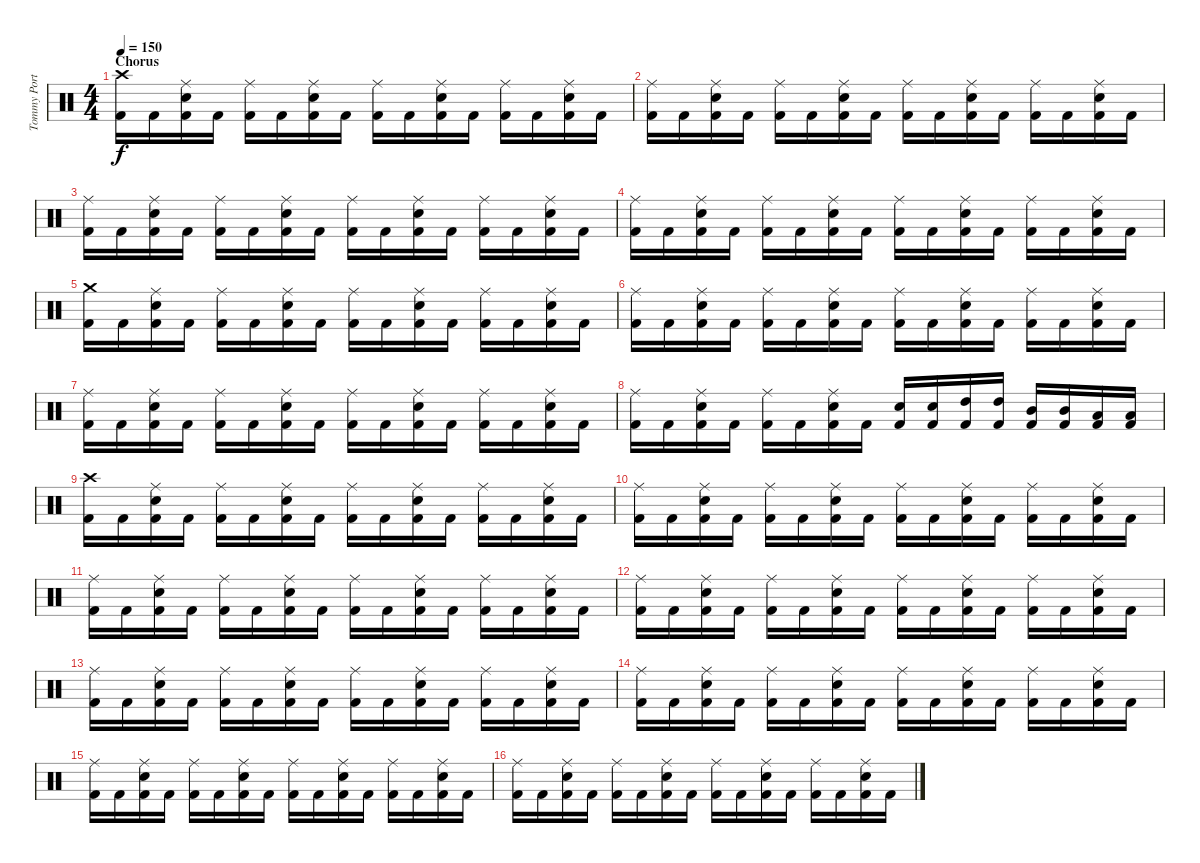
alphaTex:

\track ("Tommy Portino - Drums" "Tommy Port") {instrument percussion}
\staff {score}
\articulation defaults
\ts (4 4)
\section ("" "Chorus")
\tempo 150
\clef neutral
\ks c
("Crash high (hit)" "Kick (hit) 2").16{dy f} "Kick (hit) 2".16 ("Ride (middle)" "Electric Snare (hit)" "Kick (hit) 2").16 "Kick (hit) 2".16 ("Ride (middle)" "Kick (hit) 2").16 "Kick (hit) 2".16 ("Ride (middle)" "Electric Snare (hit)" "Kick (hit) 2").16 "Kick (hit) 2".16 ("Ride (middle)" "Kick (hit) 2").16 "Kick (hit) 2".16 ("Ride (middle)" "Electric Snare (hit)" "Kick (hit) 2").16 "Kick (hit) 2".16 ("Ride (middle)" "Kick (hit) 2").16 "Kick (hit) 2".16 ("Ride (middle)" "Electric Snare (hit)" "Kick (hit) 2").16 "Kick (hit) 2".16 |
("Ride (middle)" "Kick (hit) 2").16 "Kick (hit) 2".16 ("Ride (middle)" "Electric Snare (hit)" "Kick (hit) 2").16 "Kick (hit) 2".16 ("Ride (middle)" "Kick (hit) 2").16 "Kick (hit) 2".16 ("Ride (middle)" "Electric Snare (hit)" "Kick (hit) 2").16 "Kick (hit) 2".16 ("Ride (middle)" "Kick (hit) 2").16 "Kick (hit) 2".16 ("Ride (middle)" "Electric Snare (hit)" "Kick (hit) 2").16 "Kick (hit) 2".16 ("Ride (middle)" "Kick (hit) 2").16 "Kick (hit) 2".16 ("Ride (middle)" "Electric Snare (hit)" "Kick (hit) 2").16 "Kick (hit) 2".16 |
("Ride (middle)" "Kick (hit) 2").16 "Kick (hit) 2".16 ("Ride (middle)" "Electric Snare (hit)" "Kick (hit) 2").16 "Kick (hit) 2".16 ("Ride (middle)" "Kick (hit) 2").16 "Kick (hit) 2".16 ("Ride (middle)" "Electric Snare (hit)" "Kick (hit) 2").16 "Kick (hit) 2".16 ("Ride (middle)" "Kick (hit) 2").16 "Kick (hit) 2".16 ("Ride (middle)" "Electric Snare (hit)" "Kick (hit) 2").16 "Kick (hit) 2".16 ("Ride (middle)" "Kick (hit) 2").16 "Kick (hit) 2".16 ("Ride (middle)" "Electric Snare (hit)" "Kick (hit) 2").16 "Kick (hit) 2".16 |
("Ride (middle)" "Kick (hit) 2").16 "Kick (hit) 2".16 ("Ride (middle)" "Electric Snare (hit)" "Kick (hit) 2").16 "Kick (hit) 2".16 ("Ride (middle)" "Kick (hit) 2").16 "Kick (hit) 2".16 ("Ride (middle)" "Electric Snare (hit)" "Kick (hit) 2").16 "Kick (hit) 2".16 ("Ride (middle)" "Kick (hit) 2").16 "Kick (hit) 2".16 ("Ride (middle)" "Electric Snare (hit)" "Kick (hit) 2").16 "Kick (hit) 2".16 ("Ride (middle)" "Kick (hit) 2").16 "Kick (hit) 2".16 ("Ride (middle)" "Electric Snare (hit)" "Kick (hit) 2").16 "Kick (hit) 2".16 |
("Crash medium (hit)" "Kick (hit) 2").16 "Kick (hit) 2".16 ("Ride (middle)" "Electric Snare (hit)" "Kick (hit) 2").16 "Kick (hit) 2".16 ("Ride (middle)" "Kick (hit) 2").16 "Kick (hit) 2".16 ("Ride (middle)" "Electric Snare (hit)" "Kick (hit) 2").16 "Kick (hit) 2".16 ("Ride (middle)" "Kick (hit) 2").16 "Kick (hit) 2".16 ("Ride (middle)" "Electric Snare (hit)" "Kick (hit) 2").16 "Kick (hit) 2".16 ("Ride (middle)" "Kick (hit) 2").16 "Kick (hit) 2".16 ("Ride (middle)" "Electric Snare (hit)" "Kick (hit) 2").16 "Kick (hit) 2".16 |
("Ride (middle)" "Kick (hit) 2").16 "Kick (hit) 2".16 ("Ride (middle)" "Electric Snare (hit)" "Kick (hit) 2").16 "Kick (hit) 2".16 ("Ride (middle)" "Kick (hit) 2").16 "Kick (hit) 2".16 ("Ride (middle)" "Electric Snare (hit)" "Kick (hit) 2").16 "Kick (hit) 2".16 ("Ride (middle)" "Kick (hit) 2").16 "Kick (hit) 2".16 ("Ride (middle)" "Electric Snare (hit)" "Kick (hit) 2").16 "Kick (hit) 2".16 ("Ride (middle)" "Kick (hit) 2").16 "Kick (hit) 2".16 ("Ride (middle)" "Electric Snare (hit)" "Kick (hit) 2").16 "Kick (hit) 2".16 |
("Ride (middle)" "Kick (hit) 2").16 "Kick (hit) 2".16 ("Ride (middle)" "Electric Snare (hit)" "Kick (hit) 2").16 "Kick (hit) 2".16 ("Ride (middle)" "Kick (hit) 2").16 "Kick (hit) 2".16 ("Ride (middle)" "Electric Snare (hit)" "Kick (hit) 2").16 "Kick (hit) 2".16 ("Ride (middle)" "Kick (hit) 2").16 "Kick (hit) 2".16 ("Ride (middle)" "Electric Snare (hit)" "Kick (hit) 2").16 "Kick (hit) 2".16 ("Ride (middle)" "Kick (hit) 2").16 "Kick (hit) 2".16 ("Ride (middle)" "Electric Snare (hit)" "Kick (hit) 2").16 "Kick (hit) 2".16 |
("Ride (middle)" "Kick (hit) 2").16 "Kick (hit) 2".16 ("Ride (middle)" "Electric Snare (hit)" "Kick (hit) 2").16 "Kick (hit) 2".16 ("Ride (middle)" "Kick (hit) 2").16 "Kick (hit) 2".16 ("Ride (middle)" "Electric Snare (hit)" "Kick (hit) 2").16 "Kick (hit) 2".16 ("Electric Snare (hit)" "Kick (hit) 2").16 ("Electric Snare (hit)" "Kick (hit) 2").16 ("High Tom (hit)" "Kick (hit) 2").16 ("High Tom (hit)" "Kick (hit) 2").16 ("Mid Tom (hit)" "Kick (hit) 2").16 ("Mid Tom (hit)" "Kick (hit) 2").16 ("Low Tom (hit)" "Kick (hit) 2").16 ("Low Tom (hit)" "Kick (hit) 2").16 |
("Crash high (hit)" "Kick (hit) 2").16 "Kick (hit) 2".16 ("Ride (middle)" "Electric Snare (hit)" "Kick (hit) 2").16 "Kick (hit) 2".16 ("Ride (middle)" "Kick (hit) 2").16 "Kick (hit) 2".16 ("Ride (middle)" "Electric Snare (hit)" "Kick (hit) 2").16 "Kick (hit) 2".16 ("Ride (middle)" "Kick (hit) 2").16 "Kick (hit) 2".16 ("Ride (middle)" "Electric Snare (hit)" "Kick (hit) 2").16 "Kick (hit) 2".16 ("Ride (middle)" "Kick (hit) 2").16 "Kick (hit) 2".16 ("Ride (middle)" "Electric Snare (hit)" "Kick (hit) 2").16 "Kick (hit) 2".16 |
("Ride (middle)" "Kick (hit) 2").16 "Kick (hit) 2".16 ("Ride (middle)" "Electric Snare (hit)" "Kick (hit) 2").16 "Kick (hit) 2".16 ("Ride (middle)" "Kick (hit) 2").16 "Kick (hit) 2".16 ("Ride (middle)" "Electric Snare (hit)" "Kick (hit) 2").16 "Kick (hit) 2".16 ("Ride (middle)" "Kick (hit) 2").16 "Kick (hit) 2".16 ("Ride (middle)" "Electric Snare (hit)" "Kick (hit) 2").16 "Kick (hit) 2".16 ("Ride (middle)" "Kick (hit) 2").16 "Kick (hit) 2".16 ("Ride (middle)" "Electric Snare (hit)" "Kick (hit) 2").16 "Kick (hit) 2".16 |
("Ride (middle)" "Kick (hit) 2").16 "Kick (hit) 2".16 ("Ride (middle)" "Electric Snare (hit)" "Kick (hit) 2").16 "Kick (hit) 2".16 ("Ride (middle)" "Kick (hit) 2").16 "Kick (hit) 2".16 ("Ride (middle)" "Electric Snare (hit)" "Kick (hit) 2").16 "Kick (hit) 2".16 ("Ride (middle)" "Kick (hit) 2").16 "Kick (hit) 2".16 ("Ride (middle)" "Electric Snare (hit)" "Kick (hit) 2").16 "Kick (hit) 2".16 ("Ride (middle)" "Kick (hit) 2").16 "Kick (hit) 2".16 ("Ride (middle)" "Electric Snare (hit)" "Kick (hit) 2").16 "Kick (hit) 2".16 |
("Ride (middle)" "Kick (hit) 2").16 "Kick (hit) 2".16 ("Ride (middle)" "Electric Snare (hit)" "Kick (hit) 2").16 "Kick (hit) 2".16 ("Ride (middle)" "Kick (hit) 2").16 "Kick (hit) 2".16 ("Ride (middle)" "Electric Snare (hit)" "Kick (hit) 2").16 "Kick (hit) 2".16 ("Ride (middle)" "Kick (hit) 2").16 "Kick (hit) 2".16 ("Ride (middle)" "Electric Snare (hit)" "Kick (hit) 2").16 "Kick (hit) 2".16 ("Ride (middle)" "Kick (hit) 2").16 "Kick (hit) 2".16 ("Ride (middle)" "Electric Snare (hit)" "Kick (hit) 2").16 "Kick (hit) 2".16 |
("Ride (middle)" "Kick (hit) 2").16 "Kick (hit) 2".16 ("Ride (middle)" "Electric Snare (hit)" "Kick (hit) 2").16 "Kick (hit) 2".16 ("Ride (middle)" "Kick (hit) 2").16 "Kick (hit) 2".16 ("Ride (middle)" "Electric Snare (hit)" "Kick (hit) 2").16 "Kick (hit) 2".16 ("Ride (middle)" "Kick (hit) 2").16 "Kick (hit) 2".16 ("Ride (middle)" "Electric Snare (hit)" "Kick (hit) 2").16 "Kick (hit) 2".16 ("Ride (middle)" "Kick (hit) 2").16 "Kick (hit) 2".16 ("Ride (middle)" "Electric Snare (hit)" "Kick (hit) 2").16 "Kick (hit) 2".16 |
("Ride (middle)" "Kick (hit) 2").16 "Kick (hit) 2".16 ("Ride (middle)" "Electric Snare (hit)" "Kick (hit) 2").16 "Kick (hit) 2".16 ("Ride (middle)" "Kick (hit) 2").16 "Kick (hit) 2".16 ("Ride (middle)" "Electric Snare (hit)" "Kick (hit) 2").16 "Kick (hit) 2".16 ("Ride (middle)" "Kick (hit) 2").16 "Kick (hit) 2".16 ("Ride (middle)" "Electric Snare (hit)" "Kick (hit) 2").16 "Kick (hit) 2".16 ("Ride (middle)" "Kick (hit) 2").16 "Kick (hit) 2".16 ("Ride (middle)" "Electric Snare (hit)" "Kick (hit) 2").16 "Kick (hit) 2".16 |
("Ride (middle)" "Kick (hit) 2").16 "Kick (hit) 2".16 ("Ride (middle)" "Electric Snare (hit)" "Kick (hit) 2").16 "Kick (hit) 2".16 ("Ride (middle)" "Kick (hit) 2").16 "Kick (hit) 2".16 ("Ride (middle)" "Electric Snare (hit)" "Kick (hit) 2").16 "Kick (hit) 2".16 ("Ride (middle)" "Kick (hit) 2").16 "Kick (hit) 2".16 ("Ride (middle)" "Electric Snare (hit)" "Kick (hit) 2").16 "Kick (hit) 2".16 ("Ride (middle)" "Kick (hit) 2").16 "Kick (hit) 2".16 ("Ride (middle)" "Electric Snare (hit)" "Kick (hit) 2").16 "Kick (hit) 2".16 |
("Ride (middle)" "Kick (hit) 2").16 "Kick (hit) 2".16 ("Ride (middle)" "Electric Snare (hit)" "Kick (hit) 2").16 "Kick (hit) 2".16 ("Ride (middle)" "Kick (hit) 2").16 "Kick (hit) 2".16 ("Ride (middle)" "Electric Snare (hit)" "Kick (hit) 2").16 "Kick (hit) 2".16 ("Ride (middle)" "Kick (hit) 2").16 "Kick (hit) 2".16 ("Ride (middle)" "Electric Snare (hit)" "Kick (hit) 2").16 "Kick (hit) 2".16 ("Ride (middle)" "Kick (hit) 2").16 "Kick (hit) 2".16 ("Ride (middle)" "Electric Snare (hit)" "Kick (hit) 2").16 "Kick (hit) 2".16
